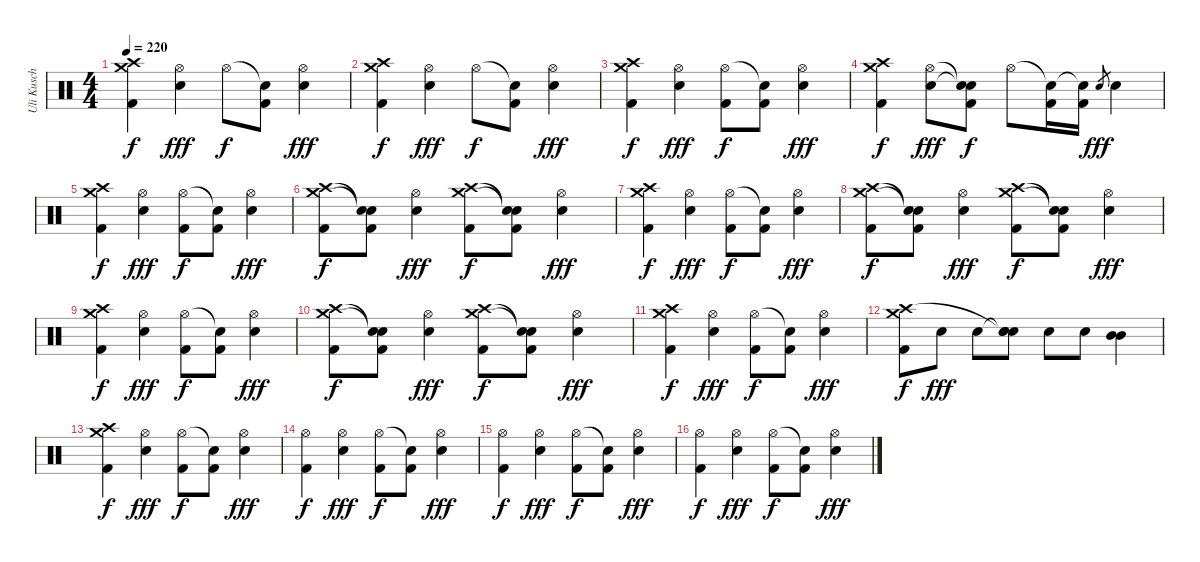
\track ("Uli Kusch" "Uli Kusch") {instrument percussion}
\staff {score}
\articulation defaults
\ts (4 4)
\tempo 220
\clef neutral
\ks c
("Crash medium (hit)" "Crash high (hit)" "Kick (hit) 2").4{dy f} ("Hi-Hat (open)" "Electric Snare (hit)").4{dy fff} "Hi-Hat (open)".8{dy f} ("Snare (hit)"{t} "Kick (hit) 2").8 ("Hi-Hat (open)" "Electric Snare (hit)").4{dy fff} |
("Crash high (hit)" "Crash medium (hit)" "Kick (hit) 2").4{dy f} ("Hi-Hat (open)" "Electric Snare (hit)").4{dy fff} "Hi-Hat (open)".8{dy f} ("Snare (hit)"{t} "Kick (hit) 2").8 ("Hi-Hat (open)" "Electric Snare (hit)").4{dy fff} |
("Crash high (hit)" "Crash medium (hit)" "Kick (hit) 2").4{dy f} ("Hi-Hat (open)" "Electric Snare (hit)").4{dy fff} ("Hi-Hat (open)" "Kick (hit) 2").8{dy f} ("Snare (hit)"{t} "Kick (hit) 2").8 ("Hi-Hat (open)" "Electric Snare (hit)").4{dy fff} |
("Crash high (hit)" "Crash medium (hit)" "Kick (hit) 2").4{dy f} ("Hi-Hat (open)" "Electric Snare (hit)").8{dy fff} ("Snare (hit)"{t} "Snare (hit)"{t} "Kick (hit) 2").8{dy f} "Hi-Hat (open)".8 ("Snare (hit)"{t} "Kick (hit) 2").16 ("Snare (hit)"{t} "Kick (hit) 2").16 "Electric Snare (hit)".8{gr dy fff} "Electric Snare (hit)".4 |
("Crash high (hit)" "Crash medium (hit)" "Kick (hit) 2").4{dy f} ("Hi-Hat (open)" "Electric Snare (hit)").4{dy fff} ("Hi-Hat (open)" "Kick (hit) 2").8{dy f} ("Snare (hit)"{t} "Kick (hit) 2").8 ("Hi-Hat (open)" "Electric Snare (hit)").4{dy fff} |
("Crash medium (hit)" "Crash high (hit)" "Kick (hit) 2").8{dy f} ("Snare (hit)"{t} "Snare (hit)"{t} "Kick (hit) 2").8 ("Hi-Hat (open)" "Electric Snare (hit)").4{dy fff} ("Crash medium (hit)" "Crash high (hit)" "Kick (hit) 2").8{dy f} ("Snare (hit)"{t} "Snare (hit)"{t} "Kick (hit) 2").8 ("Hi-Hat (open)" "Electric Snare (hit)").4{dy fff} |
("Crash high (hit)" "Crash medium (hit)" "Kick (hit) 2").4{dy f} ("Hi-Hat (open)" "Electric Snare (hit)").4{dy fff} ("Hi-Hat (open)" "Kick (hit) 2").8{dy f} ("Snare (hit)"{t} "Kick (hit) 2").8 ("Hi-Hat (open)" "Electric Snare (hit)").4{dy fff} |
("Crash medium (hit)" "Crash high (hit)" "Kick (hit) 2").8{dy f} ("Snare (hit)"{t} "Snare (hit)"{t} "Kick (hit) 2").8 ("Hi-Hat (open)" "Electric Snare (hit)").4{dy fff} ("Crash medium (hit)" "Crash high (hit)" "Kick (hit) 2").8{dy f} ("Snare (hit)"{t} "Snare (hit)"{t} "Kick (hit) 2").8 ("Hi-Hat (open)" "Electric Snare (hit)").4{dy fff} |
("Crash high (hit)" "Crash medium (hit)" "Kick (hit) 2").4{dy f} ("Hi-Hat (open)" "Electric Snare (hit)").4{dy fff} ("Hi-Hat (open)" "Kick (hit) 2").8{dy f} ("Snare (hit)"{t} "Kick (hit) 2").8 ("Hi-Hat (open)" "Electric Snare (hit)").4{dy fff} |
("Crash medium (hit)" "Crash high (hit)" "Kick (hit) 2").8{dy f} ("Snare (hit)"{t} "Snare (hit)"{t} "Kick (hit) 2").8 ("Hi-Hat (open)" "Electric Snare (hit)").4{dy fff} ("Crash medium (hit)" "Crash high (hit)" "Kick (hit) 2").8{dy f} ("Snare (hit)"{t} "Snare (hit)"{t} "Kick (hit) 2").8 ("Hi-Hat (open)" "Electric Snare (hit)").4{dy fff} |
("Crash high (hit)" "Crash medium (hit)" "Kick (hit) 2").4{dy f} ("Hi-Hat (open)" "Electric Snare (hit)").4{dy fff} ("Hi-Hat (open)" "Kick (hit) 2").8{dy f} ("Snare (hit)"{t} "Kick (hit) 2").8 ("Hi-Hat (open)" "Electric Snare (hit)").4{dy fff} |
("Crash medium (hit)" "Crash high (hit)" "Kick (hit) 2").8{dy f} "Electric Snare (hit)".8{dy fff} "Electric Snare (hit)".8 ("Snare (hit)"{t} "Snare (hit)"{t} "Electric Snare (hit)").8 "Electric Snare (hit)".8 "Electric Snare (hit)".8 ("Mid Tom (hit)" "Mid Tom (hit)").4 |
("Crash high (hit)" "Crash medium (hit)" "Kick (hit) 2").4{dy f} ("Hi-Hat (open)" "Electric Snare (hit)").4{dy fff} ("Hi-Hat (open)" "Kick (hit) 2").8{dy f} ("Snare (hit)"{t} "Kick (hit) 2").8 ("Hi-Hat (open)" "Electric Snare (hit)").4{dy fff} |
("Hi-Hat (open)" "Kick (hit) 2").4{dy f} ("Hi-Hat (open)" "Electric Snare (hit)").4{dy fff} ("Hi-Hat (open)" "Kick (hit) 2").8{dy f} ("Snare (hit)"{t} "Kick (hit) 2").8 ("Hi-Hat (open)" "Electric Snare (hit)").4{dy fff} |
("Hi-Hat (open)" "Kick (hit) 2").4{dy f} ("Hi-Hat (open)" "Electric Snare (hit)").4{dy fff} ("Hi-Hat (open)" "Kick (hit) 2").8{dy f} ("Snare (hit)"{t} "Kick (hit) 2").8 ("Hi-Hat (open)" "Electric Snare (hit)").4{dy fff} |
("Hi-Hat (open)" "Kick (hit) 2").4{dy f} ("Hi-Hat (open)" "Electric Snare (hit)").4{dy fff} ("Hi-Hat (open)" "Kick (hit) 2").8{dy f} ("Snare (hit)"{t} "Kick (hit) 2").8 ("Hi-Hat (open)" "Electric Snare (hit)").4{dy fff}
